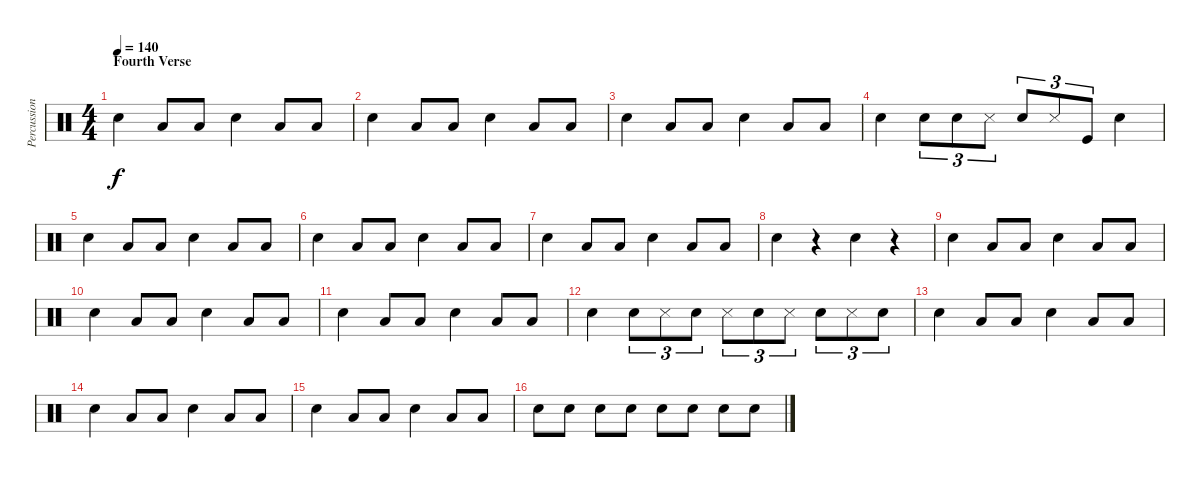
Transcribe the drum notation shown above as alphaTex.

\track ("Percussion" "Percussion") {instrument percussion}
\staff {score}
\articulation defaults
\ts (4 4)
\section ("" "Fourth Verse")
\tempo 140
\clef neutral
\ks c "Electric Snare (hit)".4{dy f} "Low Floor Tom (hit)".8 "Low Floor Tom (hit)".8 "Electric Snare (hit)".4 "Low Floor Tom (hit)".8 "Low Floor Tom (hit)".8
|
"Electric Snare (hit)".4 "Low Floor Tom (hit)".8 "Low Floor Tom (hit)".8 "Electric Snare (hit)".4 "Low Floor Tom (hit)".8 "Low Floor Tom (hit)".8 |
"Electric Snare (hit)".4 "Low Floor Tom (hit)".8 "Low Floor Tom (hit)".8 "Electric Snare (hit)".4 "Low Floor Tom (hit)".8 "Low Floor Tom (hit)".8 |
"Snare (hit) 2".4 "Electric Snare (hit)".8{tu (3 2)} "Snare (hit) 2".8{tu (3 2)} "Snare (side stick) 3".8{tu (3 2)} "Snare (hit) 2".8{tu (3 2)} "Snare (side stick) 3".8{tu (3 2)} "Kick (hit)".8{tu (3 2)} "Snare (hit) 2".4 |
"Electric Snare (hit)".4 "Low Floor Tom (hit)".8 "Low Floor Tom (hit)".8 "Electric Snare (hit)".4 "Low Floor Tom (hit)".8 "Low Floor Tom (hit)".8 |
"Electric Snare (hit)".4 "Low Floor Tom (hit)".8 "Low Floor Tom (hit)".8 "Electric Snare (hit)".4 "Low Floor Tom (hit)".8 "Low Floor Tom (hit)".8 |
"Electric Snare (hit)".4 "Low Floor Tom (hit)".8 "Low Floor Tom (hit)".8 "Electric Snare (hit)".4 "Low Floor Tom (hit)".8 "Low Floor Tom (hit)".8 |
"Electric Snare (hit)".4 r.4 "Electric Snare (hit)".4 r.4 |
"Electric Snare (hit)".4 "Low Floor Tom (hit)".8 "Low Floor Tom (hit)".8 "Electric Snare (hit)".4 "Low Floor Tom (hit)".8 "Low Floor Tom (hit)".8 |
"Electric Snare (hit)".4 "Low Floor Tom (hit)".8 "Low Floor Tom (hit)".8 "Electric Snare (hit)".4 "Low Floor Tom (hit)".8 "Low Floor Tom (hit)".8 |
"Electric Snare (hit)".4 "Low Floor Tom (hit)".8 "Low Floor Tom (hit)".8 "Electric Snare (hit)".4 "Low Floor Tom (hit)".8 "Low Floor Tom (hit)".8 |
"Electric Snare (hit)".4 "Snare (hit) 2".8{tu (3 2)} "Snare (side stick) 3".8{tu (3 2)} "Snare (hit) 2".8{tu (3 2)} "Snare (side stick) 3".8{tu (3 2)} "Snare (hit) 2".8{tu (3 2)} "Snare (side stick) 3".8{tu (3 2)} "Snare (hit) 2".8{tu (3 2)} "Snare (side stick) 3".8{tu (3 2)} "Snare (hit) 2".8{tu (3 2)} |
"Electric Snare (hit)".4 "Low Floor Tom (hit)".8 "Low Floor Tom (hit)".8 "Electric Snare (hit)".4 "Low Floor Tom (hit)".8 "Low Floor Tom (hit)".8 |
"Electric Snare (hit)".4 "Low Floor Tom (hit)".8 "Low Floor Tom (hit)".8 "Electric Snare (hit)".4 "Low Floor Tom (hit)".8 "Low Floor Tom (hit)".8 |
"Electric Snare (hit)".4 "Low Floor Tom (hit)".8 "Low Floor Tom (hit)".8 "Electric Snare (hit)".4 "Low Floor Tom (hit)".8 "Low Floor Tom (hit)".8 |
"Electric Snare (hit)".8 "Electric Snare (hit)".8 "Electric Snare (hit)".8 "Electric Snare (hit)".8 "Electric Snare (hit)".8 "Electric Snare (hit)".8 "Electric Snare (hit)".8 "Electric Snare (hit)".8
